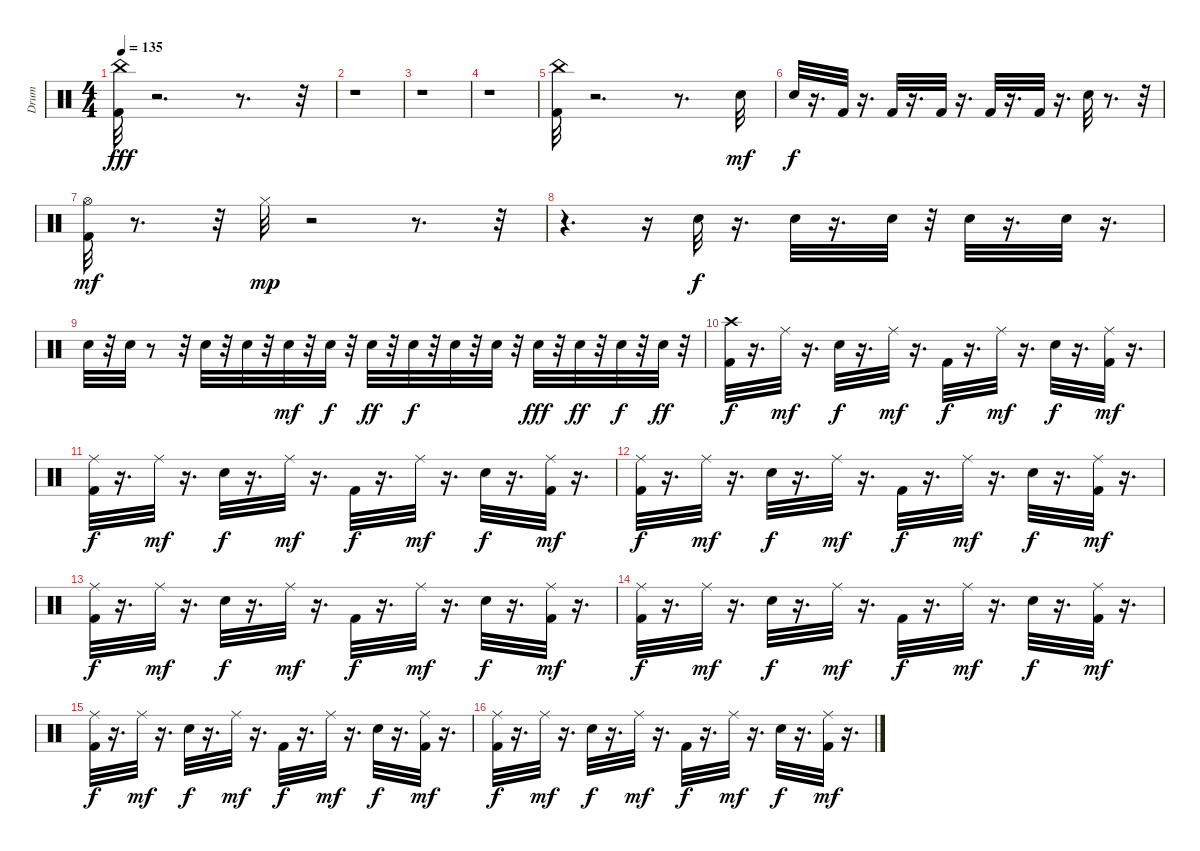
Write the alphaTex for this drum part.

\track ("Drum" "Drum") {instrument percussion}
\staff {score}
\articulation defaults
\ts (4 4)
\tempo 135
\clef neutral
\ks c
("China (hit)" "Kick (hit) 2").32{dy fff} r.2{d} r.8{d} r.32 |
r.1 |
r.1 |
r.1 |
("China (hit)" "Kick (hit) 2").32 r.2{d} r.8{d} "Electric Snare (hit)".32{dy mf} |
"Electric Snare (hit)".32{dy f} r.16{d} "Kick (hit) 2".32 r.16{d} "Kick (hit) 2".32 r.16{d} "Kick (hit) 2".32 r.16{d} "Kick (hit) 2".32 r.16{d} "Kick (hit) 2".32 r.16{d} "Electric Snare (hit)".32 r.8{d} r.32 |
("Hi-Hat (open)" "Kick (hit) 2").32{dy mf} r.8{d} r.32 "Hi-Hat (closed)".32{dy mp} r.2 r.8{d} r.32 |
r.4{d} r.16 "Electric Snare (hit)".32{dy f} r.16{d} "Electric Snare (hit)".32 r.16{d} "Electric Snare (hit)".32 r.32 "Electric Snare (hit)".32 r.16{d} "Electric Snare (hit)".32 r.16{d} |
"Electric Snare (hit)".32 r.32 "Electric Snare (hit)".32 r.8 r.32 "Electric Snare (hit)".32 r.32 "Electric Snare (hit)".32 r.32 "Electric Snare (hit)".32{dy mf} r.32 "Electric Snare (hit)".32{dy f} r.32 "Electric Snare (hit)".32{dy ff} r.32 "Electric Snare (hit)".32{dy f} r.32 "Electric Snare (hit)".32 r.32 "Electric Snare (hit)".32 r.32 "Electric Snare (hit)".32{dy fff} r.32 "Electric Snare (hit)".32{dy ff} r.32 "Electric Snare (hit)".32{dy f} r.32 "Electric Snare (hit)".32{dy ff} r.32 |
("Crash high (hit)" "Kick (hit) 2").32{dy f} r.16{d} "Ride (middle)".32{dy mf} r.16{d} "Electric Snare (hit)".32{dy f} r.16{d} "Ride (middle)".32{dy mf} r.16{d} "Kick (hit) 2".32{dy f} r.16{d} "Ride (middle)".32{dy mf} r.16{d} "Electric Snare (hit)".32{dy f} r.16{d} ("Ride (middle)" "Kick (hit) 2").32{dy mf} r.16{d} |
("Ride (middle)" "Kick (hit) 2").32{dy f} r.16{d} "Ride (middle)".32{dy mf} r.16{d} "Electric Snare (hit)".32{dy f} r.16{d} "Ride (middle)".32{dy mf} r.16{d} "Kick (hit) 2".32{dy f} r.16{d} "Ride (middle)".32{dy mf} r.16{d} "Electric Snare (hit)".32{dy f} r.16{d} ("Ride (middle)" "Kick (hit) 2").32{dy mf} r.16{d} |
("Ride (middle)" "Kick (hit) 2").32{dy f} r.16{d} "Ride (middle)".32{dy mf} r.16{d} "Electric Snare (hit)".32{dy f} r.16{d} "Ride (middle)".32{dy mf} r.16{d} "Kick (hit) 2".32{dy f} r.16{d} "Ride (middle)".32{dy mf} r.16{d} "Electric Snare (hit)".32{dy f} r.16{d} ("Ride (middle)" "Kick (hit) 2").32{dy mf} r.16{d} |
("Ride (middle)" "Kick (hit) 2").32{dy f} r.16{d} "Ride (middle)".32{dy mf} r.16{d} "Electric Snare (hit)".32{dy f} r.16{d} "Ride (middle)".32{dy mf} r.16{d} "Kick (hit) 2".32{dy f} r.16{d} "Ride (middle)".32{dy mf} r.16{d} "Electric Snare (hit)".32{dy f} r.16{d} ("Ride (middle)" "Kick (hit) 2").32{dy mf} r.16{d} |
("Ride (middle)" "Kick (hit) 2").32{dy f} r.16{d} "Ride (middle)".32{dy mf} r.16{d} "Electric Snare (hit)".32{dy f} r.16{d} "Ride (middle)".32{dy mf} r.16{d} "Kick (hit) 2".32{dy f} r.16{d} "Ride (middle)".32{dy mf} r.16{d} "Electric Snare (hit)".32{dy f} r.16{d} ("Ride (middle)" "Kick (hit) 2").32{dy mf} r.16{d} |
("Ride (middle)" "Kick (hit) 2").32{dy f} r.16{d} "Ride (middle)".32{dy mf} r.16{d} "Electric Snare (hit)".32{dy f} r.16{d} "Ride (middle)".32{dy mf} r.16{d} "Kick (hit) 2".32{dy f} r.16{d} "Ride (middle)".32{dy mf} r.16{d} "Electric Snare (hit)".32{dy f} r.16{d} ("Ride (middle)" "Kick (hit) 2").32{dy mf} r.16{d} |
("Ride (middle)" "Kick (hit) 2").32{dy f} r.16{d} "Ride (middle)".32{dy mf} r.16{d} "Electric Snare (hit)".32{dy f} r.16{d} "Ride (middle)".32{dy mf} r.16{d} "Kick (hit) 2".32{dy f} r.16{d} "Ride (middle)".32{dy mf} r.16{d} "Electric Snare (hit)".32{dy f} r.16{d} ("Ride (middle)" "Kick (hit) 2").32{dy mf} r.16{d}
